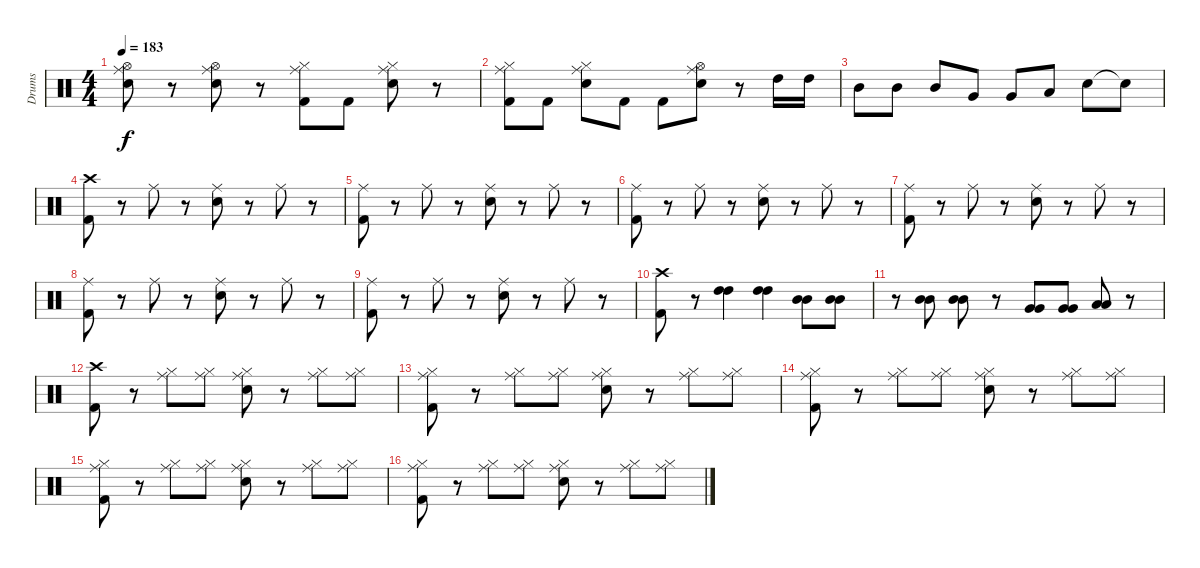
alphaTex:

\track ("Drums" "Drums") {instrument percussion}
\staff {score}
\articulation defaults
\ts (4 4)
\tempo 183
\clef neutral
\ks c
("Hi-Hat (open)" "Ride (middle)" "Snare (hit) 2").8{dy f} r.8 ("Hi-Hat (open)" "Ride (middle)" "Snare (hit) 2").8 r.8 ("Hi-Hat (closed)" "Ride (middle)" "Kick (hit) 2").8 "Kick (hit) 2".8 ("Hi-Hat (closed)" "Ride (middle)" "Snare (hit) 2").8 r.8 |
("Hi-Hat (closed)" "Ride (middle)" "Kick (hit) 2").8 "Kick (hit) 2".8 ("Hi-Hat (closed)" "Ride (middle)" "Snare (hit) 2").8 "Kick (hit) 2".8 "Kick (hit) 2".8 ("Hi-Hat (open)" "Ride (middle)" "Snare (hit) 2").8{volume 4} r.8 "High Tom (hit)".16{volume 13} "High Tom (hit)".16 |
"Mid Tom (hit)".8 "Mid Tom (hit)".8 "Mid Tom (hit)".8 "Very Low Tom (hit)".8 "Very Low Tom (hit)".8 "Low Floor Tom (hit)".8 "Snare (hit) 2".8 "Snare (hit)"{t}.8 |
("Crash high (hit)" "Kick (hit) 2").8 r.8 "Ride (middle)".8 r.8 ("Ride (middle)" "Snare (hit) 2").8 r.8 "Ride (middle)".8 r.8 |
("Ride (middle)" "Kick (hit) 2").8 r.8 "Ride (middle)".8 r.8 ("Ride (middle)" "Snare (hit) 2").8 r.8 "Ride (middle)".8 r.8 |
("Ride (middle)" "Kick (hit) 2").8 r.8 "Ride (middle)".8 r.8 ("Ride (middle)" "Snare (hit) 2").8 r.8 "Ride (middle)".8 r.8 |
("Ride (middle)" "Kick (hit) 2").8 r.8 "Ride (middle)".8 r.8 ("Ride (middle)" "Snare (hit) 2").8 r.8 "Ride (middle)".8 r.8 |
("Ride (middle)" "Kick (hit) 2").8 r.8 "Ride (middle)".8 r.8 ("Ride (middle)" "Snare (hit) 2").8 r.8 "Ride (middle)".8 r.8 |
("Ride (middle)" "Kick (hit) 2").8 r.8 "Ride (middle)".8 r.8 ("Ride (middle)" "Snare (hit) 2").8 r.8 "Ride (middle)".8 r.8 |
("Crash high (hit)" "Kick (hit) 2").8 r.8 ("High Tom (hit)" "High Tom (hit)").4 ("High Tom (hit)" "High Tom (hit)").4 ("Mid Tom (hit)" "Mid Tom (hit)").8 ("Mid Tom (hit)" "Mid Tom (hit)").8 |
r.8 ("Mid Tom (hit)" "Mid Tom (hit)").8 ("Mid Tom (hit)" "Mid Tom (hit)").8 r.8 ("Very Low Tom (hit)" "Very Low Tom (hit)").8 ("Very Low Tom (hit)" "Very Low Tom (hit)").8 ("Low Floor Tom (hit)" "Low Floor Tom (hit)").8 r.8 |
("Crash high (hit)" "Kick (hit) 2").8 r.8 ("Ride (middle)" "Hi-Hat (closed)").8 ("Ride (middle)" "Hi-Hat (closed)").8 ("Ride (middle)" "Hi-Hat (closed)" "Snare (hit) 2").8 r.8 ("Ride (middle)" "Hi-Hat (closed)").8 ("Ride (middle)" "Hi-Hat (closed)").8 |
("Ride (middle)" "Hi-Hat (closed)" "Kick (hit) 2").8 r.8 ("Ride (middle)" "Hi-Hat (closed)").8 ("Ride (middle)" "Hi-Hat (closed)").8 ("Ride (middle)" "Hi-Hat (closed)" "Snare (hit) 2").8 r.8 ("Ride (middle)" "Hi-Hat (closed)").8 ("Ride (middle)" "Hi-Hat (closed)").8 |
("Ride (middle)" "Hi-Hat (closed)" "Kick (hit) 2").8 r.8 ("Ride (middle)" "Hi-Hat (closed)").8 ("Ride (middle)" "Hi-Hat (closed)").8 ("Ride (middle)" "Hi-Hat (closed)" "Snare (hit) 2").8 r.8 ("Ride (middle)" "Hi-Hat (closed)").8 ("Ride (middle)" "Hi-Hat (closed)").8 |
("Ride (middle)" "Hi-Hat (closed)" "Kick (hit) 2").8 r.8 ("Ride (middle)" "Hi-Hat (closed)").8 ("Ride (middle)" "Hi-Hat (closed)").8 ("Ride (middle)" "Hi-Hat (closed)" "Snare (hit) 2").8 r.8 ("Ride (middle)" "Hi-Hat (closed)").8 ("Ride (middle)" "Hi-Hat (closed)").8 |
("Ride (middle)" "Hi-Hat (closed)" "Kick (hit) 2").8 r.8 ("Ride (middle)" "Hi-Hat (closed)").8 ("Ride (middle)" "Hi-Hat (closed)").8 ("Ride (middle)" "Hi-Hat (closed)" "Snare (hit) 2").8 r.8 ("Ride (middle)" "Hi-Hat (closed)").8 ("Ride (middle)" "Hi-Hat (closed)").8
